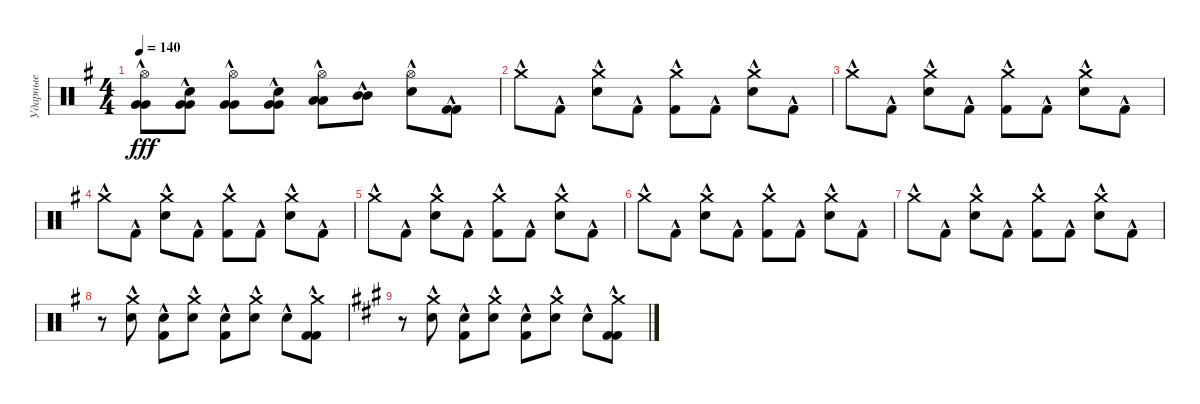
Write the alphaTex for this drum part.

\track ("Ударные" "Ударные") {instrument percussion}
\staff {score}
\articulation defaults
\ts (4 4)
\tempo 140
\clef neutral
\ks g
("Hi-Hat (open)"{hac} "Very Low Tom (hit)"{hac} "Very Low Tom (hit)"{hac}).8{dy fff} ("Electric Snare (hit)"{hac} "Very Low Tom (hit)"{hac} "Very Low Tom (hit)"{hac}).8 ("Hi-Hat (open)"{hac} "Very Low Tom (hit)"{hac} "Very Low Tom (hit)"{hac}).8 ("Electric Snare (hit)"{hac} "Very Low Tom (hit)"{hac} "Very Low Tom (hit)"{hac}).8 ("Hi-Hat (open)"{hac} "Low Tom (hit)"{hac} "Low Tom (hit)"{hac}).8 ("Mid Tom (hit)"{hac} "Mid Tom (hit)"{hac}).8 ("Hi-Hat (open)"{hac} "Electric Snare (hit)"{hac}).8 ("Kick (hit) 2"{hac} "Kick (hit) 2"{hac}).8 |
"Crash medium (hit)"{hac}.8 "Kick (hit) 2"{hac}.8 ("Crash medium (hit)"{hac} "Electric Snare (hit)"{hac}).8 "Kick (hit) 2"{hac}.8 ("Crash medium (hit)"{hac} "Kick (hit) 2"{hac}).8 "Kick (hit) 2"{hac}.8 ("Crash medium (hit)"{hac} "Electric Snare (hit)"{hac}).8 "Kick (hit) 2"{hac}.8 |
"Crash medium (hit)"{hac}.8 "Kick (hit) 2"{hac}.8 ("Crash medium (hit)"{hac} "Electric Snare (hit)"{hac}).8 "Kick (hit) 2"{hac}.8 ("Crash medium (hit)"{hac} "Kick (hit) 2"{hac}).8 "Kick (hit) 2"{hac}.8 ("Crash medium (hit)"{hac} "Electric Snare (hit)"{hac}).8 "Kick (hit) 2"{hac}.8 |
"Crash medium (hit)"{hac}.8 "Kick (hit) 2"{hac}.8 ("Crash medium (hit)"{hac} "Electric Snare (hit)"{hac}).8 "Kick (hit) 2"{hac}.8 ("Crash medium (hit)"{hac} "Kick (hit) 2"{hac}).8 "Kick (hit) 2"{hac}.8 ("Crash medium (hit)"{hac} "Electric Snare (hit)"{hac}).8 "Kick (hit) 2"{hac}.8 |
"Crash medium (hit)"{hac}.8 "Kick (hit) 2"{hac}.8 ("Crash medium (hit)"{hac} "Electric Snare (hit)"{hac}).8 "Kick (hit) 2"{hac}.8 ("Crash medium (hit)"{hac} "Kick (hit) 2"{hac}).8 "Kick (hit) 2"{hac}.8 ("Crash medium (hit)"{hac} "Electric Snare (hit)"{hac}).8 "Kick (hit) 2"{hac}.8 |
"Crash medium (hit)"{hac}.8 "Kick (hit) 2"{hac}.8 ("Crash medium (hit)"{hac} "Electric Snare (hit)"{hac}).8 "Kick (hit) 2"{hac}.8 ("Crash medium (hit)"{hac} "Kick (hit) 2"{hac}).8 "Kick (hit) 2"{hac}.8 ("Crash medium (hit)"{hac} "Electric Snare (hit)"{hac}).8 "Kick (hit) 2"{hac}.8 |
"Crash medium (hit)"{hac}.8 "Kick (hit) 2"{hac}.8 ("Crash medium (hit)"{hac} "Electric Snare (hit)"{hac}).8 "Kick (hit) 2"{hac}.8 ("Crash medium (hit)"{hac} "Kick (hit) 2"{hac}).8 "Kick (hit) 2"{hac}.8 ("Crash medium (hit)"{hac} "Electric Snare (hit)"{hac}).8 "Kick (hit) 2"{hac}.8 |
r.8 ("Crash medium (hit)"{hac} "Electric Snare (hit)"{hac}).8 ("Electric Snare (hit)"{hac} "Kick (hit) 2"{hac}).8 ("Crash medium (hit)"{hac} "Electric Snare (hit)"{hac}).8 ("Electric Snare (hit)"{hac} "Kick (hit) 2"{hac}).8 ("Crash medium (hit)"{hac} "Electric Snare (hit)"{hac}).8 "Electric Snare (hit)"{hac}.8 ("Crash medium (hit)"{hac} "Kick (hit) 2"{hac} "Kick (hit) 2"{hac}).8 |
\ks a
r.8 ("Crash medium (hit)"{hac} "Electric Snare (hit)"{hac}).8 ("Electric Snare (hit)"{hac} "Kick (hit) 2"{hac}).8 ("Crash medium (hit)"{hac} "Electric Snare (hit)"{hac}).8 ("Electric Snare (hit)"{hac} "Kick (hit) 2"{hac}).8 ("Crash medium (hit)"{hac} "Electric Snare (hit)"{hac}).8 "Electric Snare (hit)"{hac}.8 ("Crash medium (hit)"{hac} "Kick (hit) 2"{hac} "Kick (hit) 2"{hac}).8
